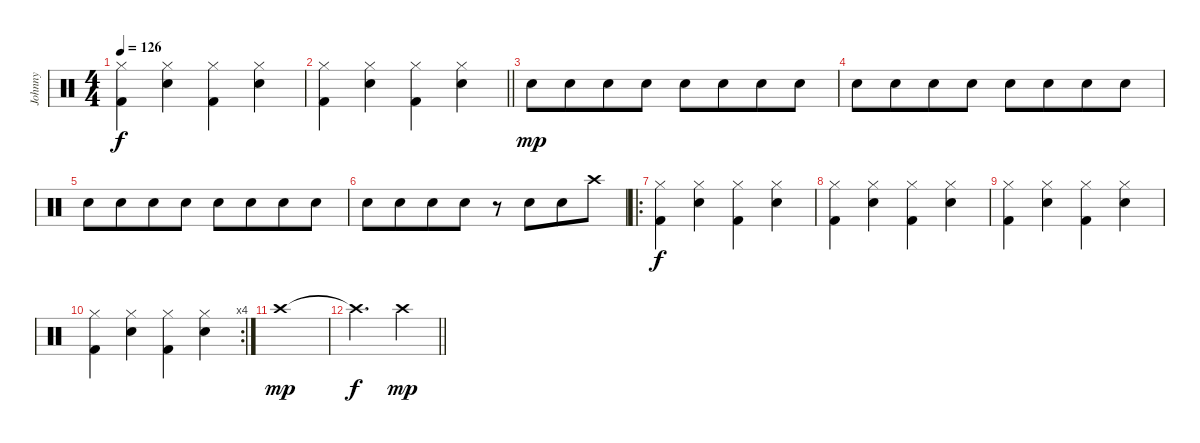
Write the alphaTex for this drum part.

\track ("Johnny" "Johnny") {instrument percussion}
\staff {score}
\articulation defaults
\ts (4 4)
\tempo 126
\clef neutral
\ks c
("Kick (hit) 2" "Hi-Hat (closed)").4{dy f} ("Electric Snare (hit)" "Hi-Hat (closed)").4 ("Kick (hit) 2" "Hi-Hat (closed)").4 ("Electric Snare (hit)" "Hi-Hat (closed)").4 |
\barLineRight lightlight
("Kick (hit) 2" "Hi-Hat (closed)").4 ("Electric Snare (hit)" "Hi-Hat (closed)").4 ("Kick (hit) 2" "Hi-Hat (closed)").4 ("Electric Snare (hit)" "Hi-Hat (closed)").4 |
"Electric Snare (hit)".8{dy mp} "Electric Snare (hit)".8{beam merge} "Electric Snare (hit)".8 "Electric Snare (hit)".8 "Electric Snare (hit)".8 "Electric Snare (hit)".8{beam merge} "Electric Snare (hit)".8 "Electric Snare (hit)".8 |
"Electric Snare (hit)".8 "Electric Snare (hit)".8{beam merge} "Electric Snare (hit)".8 "Electric Snare (hit)".8 "Electric Snare (hit)".8 "Electric Snare (hit)".8{beam merge} "Electric Snare (hit)".8 "Electric Snare (hit)".8 |
"Electric Snare (hit)".8 "Electric Snare (hit)".8{beam merge} "Electric Snare (hit)".8 "Electric Snare (hit)".8 "Electric Snare (hit)".8 "Electric Snare (hit)".8{beam merge} "Electric Snare (hit)".8 "Electric Snare (hit)".8 |
"Electric Snare (hit)".8 "Electric Snare (hit)".8{beam merge} "Electric Snare (hit)".8 "Electric Snare (hit)".8 r.8 "Electric Snare (hit)".8{beam merge} "Electric Snare (hit)".8 "Crash high (hit)".8 |
\ro
("Kick (hit) 2" "Hi-Hat (closed)").4{dy f} ("Electric Snare (hit)" "Hi-Hat (closed)").4 ("Kick (hit) 2" "Hi-Hat (closed)").4 ("Electric Snare (hit)" "Hi-Hat (closed)").4 |
("Kick (hit) 2" "Hi-Hat (closed)").4 ("Electric Snare (hit)" "Hi-Hat (closed)").4 ("Kick (hit) 2" "Hi-Hat (closed)").4 ("Electric Snare (hit)" "Hi-Hat (closed)").4 |
("Kick (hit) 2" "Hi-Hat (closed)").4 ("Electric Snare (hit)" "Hi-Hat (closed)").4 ("Kick (hit) 2" "Hi-Hat (closed)").4 ("Electric Snare (hit)" "Hi-Hat (closed)").4 |
\rc 4
("Kick (hit) 2" "Hi-Hat (closed)").4 ("Electric Snare (hit)" "Hi-Hat (closed)").4 ("Kick (hit) 2" "Hi-Hat (closed)").4 ("Electric Snare (hit)" "Hi-Hat (closed)").4 |
"Crash high (hit)".1{dy mp} |
\barLineRight lightlight "Crash high (hit)"{t}.2{d dy f} "Crash high (hit)".4{dy mp}
